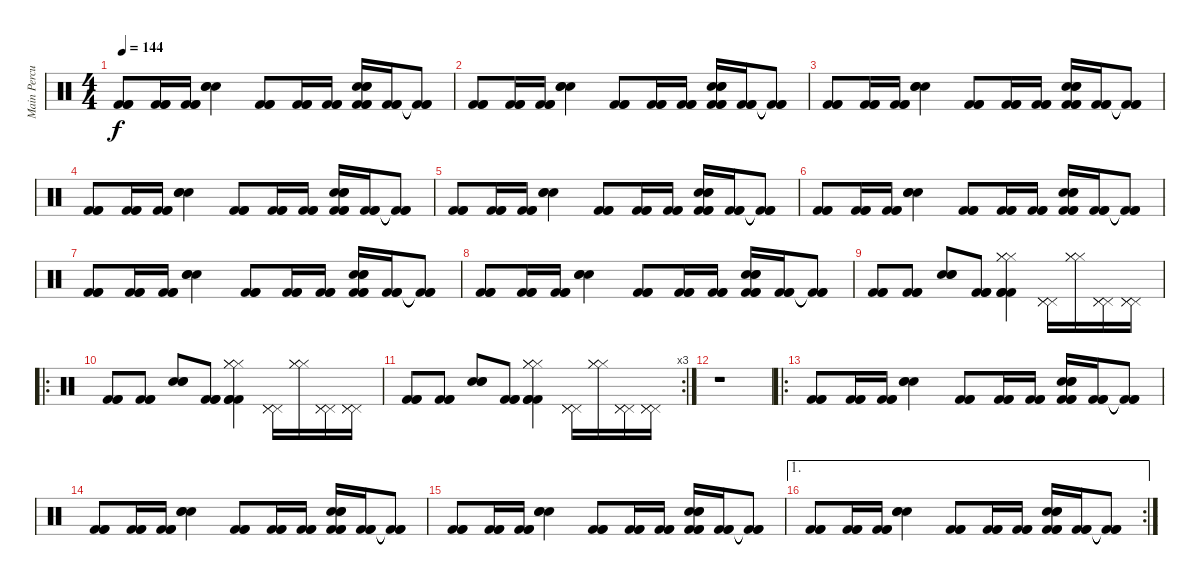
\track ("Main Percussion" "Main Percu") {instrument percussion}
\staff {score}
\articulation defaults
\ts (4 4)
\tempo 144
\clef neutral
\ks c
("Kick (hit) 2" "Kick (hit) 2" "Kick (hit) 2").8{dy f} ("Kick (hit) 2" "Kick (hit) 2" "Kick (hit) 2").16 ("Kick (hit) 2" "Kick (hit) 2" "Kick (hit) 2").16 ("Electric Snare (hit)" "Electric Snare (hit)" "Electric Snare (hit)").4 ("Kick (hit) 2" "Kick (hit) 2" "Kick (hit) 2").8 ("Kick (hit) 2" "Kick (hit) 2" "Kick (hit) 2").16 ("Kick (hit) 2" "Kick (hit) 2" "Kick (hit) 2").16 ("Snare (hit) 2" "Snare (hit) 2" "Snare (hit) 2" "Kick (hit) 2" "Kick (hit) 2" "Kick (hit) 2").16 ("Kick (hit) 2" "Kick (hit) 2" "Kick (hit) 2").16 ("Kick (hit) 2"{t} "Kick (hit) 2"{t} "Kick (hit) 2"{t}).8 |
("Kick (hit) 2" "Kick (hit) 2" "Kick (hit) 2").8 ("Kick (hit) 2" "Kick (hit) 2" "Kick (hit) 2").16 ("Kick (hit) 2" "Kick (hit) 2" "Kick (hit) 2").16 ("Electric Snare (hit)" "Electric Snare (hit)" "Electric Snare (hit)").4 ("Kick (hit) 2" "Kick (hit) 2" "Kick (hit) 2").8 ("Kick (hit) 2" "Kick (hit) 2" "Kick (hit) 2").16 ("Kick (hit) 2" "Kick (hit) 2" "Kick (hit) 2").16 ("Snare (hit) 2" "Snare (hit) 2" "Snare (hit) 2" "Kick (hit) 2" "Kick (hit) 2" "Kick (hit) 2").16 ("Kick (hit) 2" "Kick (hit) 2" "Kick (hit) 2").16 ("Kick (hit) 2"{t} "Kick (hit) 2"{t} "Kick (hit) 2"{t}).8 |
("Kick (hit) 2" "Kick (hit) 2" "Kick (hit) 2").8 ("Kick (hit) 2" "Kick (hit) 2" "Kick (hit) 2").16 ("Kick (hit) 2" "Kick (hit) 2" "Kick (hit) 2").16 ("Electric Snare (hit)" "Electric Snare (hit)" "Electric Snare (hit)").4 ("Kick (hit) 2" "Kick (hit) 2" "Kick (hit) 2").8 ("Kick (hit) 2" "Kick (hit) 2" "Kick (hit) 2").16 ("Kick (hit) 2" "Kick (hit) 2" "Kick (hit) 2").16 ("Snare (hit) 2" "Snare (hit) 2" "Snare (hit) 2" "Kick (hit) 2" "Kick (hit) 2" "Kick (hit) 2").16 ("Kick (hit) 2" "Kick (hit) 2" "Kick (hit) 2").16 ("Kick (hit) 2"{t} "Kick (hit) 2"{t} "Kick (hit) 2"{t}).8 |
("Kick (hit) 2" "Kick (hit) 2" "Kick (hit) 2").8 ("Kick (hit) 2" "Kick (hit) 2" "Kick (hit) 2").16 ("Kick (hit) 2" "Kick (hit) 2" "Kick (hit) 2").16 ("Electric Snare (hit)" "Electric Snare (hit)" "Electric Snare (hit)").4 ("Kick (hit) 2" "Kick (hit) 2" "Kick (hit) 2").8 ("Kick (hit) 2" "Kick (hit) 2" "Kick (hit) 2").16 ("Kick (hit) 2" "Kick (hit) 2" "Kick (hit) 2").16 ("Snare (hit) 2" "Snare (hit) 2" "Snare (hit) 2" "Kick (hit) 2" "Kick (hit) 2" "Kick (hit) 2").16 ("Kick (hit) 2" "Kick (hit) 2" "Kick (hit) 2").16 ("Kick (hit) 2"{t} "Kick (hit) 2"{t} "Kick (hit) 2"{t}).8 |
("Kick (hit) 2" "Kick (hit) 2" "Kick (hit) 2").8 ("Kick (hit) 2" "Kick (hit) 2" "Kick (hit) 2").16 ("Kick (hit) 2" "Kick (hit) 2" "Kick (hit) 2").16 ("Electric Snare (hit)" "Electric Snare (hit)" "Electric Snare (hit)").4 ("Kick (hit) 2" "Kick (hit) 2" "Kick (hit) 2").8 ("Kick (hit) 2" "Kick (hit) 2" "Kick (hit) 2").16 ("Kick (hit) 2" "Kick (hit) 2" "Kick (hit) 2").16 ("Snare (hit) 2" "Snare (hit) 2" "Snare (hit) 2" "Kick (hit) 2" "Kick (hit) 2" "Kick (hit) 2").16 ("Kick (hit) 2" "Kick (hit) 2" "Kick (hit) 2").16 ("Kick (hit) 2"{t} "Kick (hit) 2"{t} "Kick (hit) 2"{t}).8 |
("Kick (hit) 2" "Kick (hit) 2" "Kick (hit) 2").8 ("Kick (hit) 2" "Kick (hit) 2" "Kick (hit) 2").16 ("Kick (hit) 2" "Kick (hit) 2" "Kick (hit) 2").16 ("Electric Snare (hit)" "Electric Snare (hit)" "Electric Snare (hit)").4 ("Kick (hit) 2" "Kick (hit) 2" "Kick (hit) 2").8 ("Kick (hit) 2" "Kick (hit) 2" "Kick (hit) 2").16 ("Kick (hit) 2" "Kick (hit) 2" "Kick (hit) 2").16 ("Snare (hit) 2" "Snare (hit) 2" "Snare (hit) 2" "Kick (hit) 2" "Kick (hit) 2" "Kick (hit) 2").16 ("Kick (hit) 2" "Kick (hit) 2" "Kick (hit) 2").16 ("Kick (hit) 2"{t} "Kick (hit) 2"{t} "Kick (hit) 2"{t}).8 |
("Kick (hit) 2" "Kick (hit) 2" "Kick (hit) 2").8 ("Kick (hit) 2" "Kick (hit) 2" "Kick (hit) 2").16 ("Kick (hit) 2" "Kick (hit) 2" "Kick (hit) 2").16 ("Electric Snare (hit)" "Electric Snare (hit)" "Electric Snare (hit)").4 ("Kick (hit) 2" "Kick (hit) 2" "Kick (hit) 2").8 ("Kick (hit) 2" "Kick (hit) 2" "Kick (hit) 2").16 ("Kick (hit) 2" "Kick (hit) 2" "Kick (hit) 2").16 ("Snare (hit) 2" "Snare (hit) 2" "Snare (hit) 2" "Kick (hit) 2" "Kick (hit) 2" "Kick (hit) 2").16 ("Kick (hit) 2" "Kick (hit) 2" "Kick (hit) 2").16 ("Kick (hit) 2"{t} "Kick (hit) 2"{t} "Kick (hit) 2"{t}).8 |
("Kick (hit) 2" "Kick (hit) 2" "Kick (hit) 2").8 ("Kick (hit) 2" "Kick (hit) 2" "Kick (hit) 2").16 ("Kick (hit) 2" "Kick (hit) 2" "Kick (hit) 2").16 ("Electric Snare (hit)" "Electric Snare (hit)" "Electric Snare (hit)").4 ("Kick (hit) 2" "Kick (hit) 2" "Kick (hit) 2").8 ("Kick (hit) 2" "Kick (hit) 2" "Kick (hit) 2").16 ("Kick (hit) 2" "Kick (hit) 2" "Kick (hit) 2").16 ("Snare (hit) 2" "Snare (hit) 2" "Snare (hit) 2" "Kick (hit) 2" "Kick (hit) 2" "Kick (hit) 2").16 ("Kick (hit) 2" "Kick (hit) 2" "Kick (hit) 2").16 ("Kick (hit) 2"{t} "Kick (hit) 2"{t} "Kick (hit) 2"{t}).8 |
("Kick (hit) 2" "Kick (hit) 2" "Kick (hit) 2").8 ("Kick (hit) 2" "Kick (hit) 2" "Kick (hit) 2").8 ("Snare (hit) 2" "Snare (hit) 2" "Snare (hit) 2").8 ("Kick (hit) 2" "Kick (hit) 2" "Kick (hit) 2").8 ("Hi-Hat (closed)" "Hi-Hat (closed)" "Hi-Hat (closed)" "Kick (hit) 2" "Kick (hit) 2" "Kick (hit) 2").4 ("Pedal Hi-Hat (hit)" "Pedal Hi-Hat (hit)" "Pedal Hi-Hat (hit)").16 ("Hi-Hat (closed)" "Hi-Hat (closed)" "Hi-Hat (closed)").16 ("Pedal Hi-Hat (hit)" "Pedal Hi-Hat (hit)" "Pedal Hi-Hat (hit)").16 ("Pedal Hi-Hat (hit)" "Pedal Hi-Hat (hit)" "Pedal Hi-Hat (hit)").16 |
\ro
("Kick (hit) 2" "Kick (hit) 2" "Kick (hit) 2").8 ("Kick (hit) 2" "Kick (hit) 2" "Kick (hit) 2").8 ("Snare (hit) 2" "Snare (hit) 2" "Snare (hit) 2").8 ("Kick (hit) 2" "Kick (hit) 2" "Kick (hit) 2").8 ("Hi-Hat (closed)" "Hi-Hat (closed)" "Hi-Hat (closed)" "Kick (hit) 2" "Kick (hit) 2" "Kick (hit) 2").4 ("Pedal Hi-Hat (hit)" "Pedal Hi-Hat (hit)" "Pedal Hi-Hat (hit)").16 ("Hi-Hat (closed)" "Hi-Hat (closed)" "Hi-Hat (closed)").16 ("Pedal Hi-Hat (hit)" "Pedal Hi-Hat (hit)" "Pedal Hi-Hat (hit)").16 ("Pedal Hi-Hat (hit)" "Pedal Hi-Hat (hit)" "Pedal Hi-Hat (hit)").16 |
\rc 3
("Kick (hit) 2" "Kick (hit) 2" "Kick (hit) 2").8 ("Kick (hit) 2" "Kick (hit) 2" "Kick (hit) 2").8 ("Snare (hit) 2" "Snare (hit) 2" "Snare (hit) 2").8 ("Kick (hit) 2" "Kick (hit) 2" "Kick (hit) 2").8 ("Hi-Hat (closed)" "Hi-Hat (closed)" "Hi-Hat (closed)" "Kick (hit) 2" "Kick (hit) 2" "Kick (hit) 2").4 ("Pedal Hi-Hat (hit)" "Pedal Hi-Hat (hit)" "Pedal Hi-Hat (hit)").16 ("Hi-Hat (closed)" "Hi-Hat (closed)" "Hi-Hat (closed)").16 ("Pedal Hi-Hat (hit)" "Pedal Hi-Hat (hit)" "Pedal Hi-Hat (hit)").16 ("Pedal Hi-Hat (hit)" "Pedal Hi-Hat (hit)" "Pedal Hi-Hat (hit)").16 |
r.1 |
\ro
("Kick (hit) 2" "Kick (hit) 2" "Kick (hit) 2").8 ("Kick (hit) 2" "Kick (hit) 2" "Kick (hit) 2").16 ("Kick (hit) 2" "Kick (hit) 2" "Kick (hit) 2").16 ("Electric Snare (hit)" "Electric Snare (hit)" "Electric Snare (hit)").4 ("Kick (hit) 2" "Kick (hit) 2" "Kick (hit) 2").8 ("Kick (hit) 2" "Kick (hit) 2" "Kick (hit) 2").16 ("Kick (hit) 2" "Kick (hit) 2" "Kick (hit) 2").16 ("Snare (hit) 2" "Snare (hit) 2" "Snare (hit) 2" "Kick (hit) 2" "Kick (hit) 2" "Kick (hit) 2").16 ("Kick (hit) 2" "Kick (hit) 2" "Kick (hit) 2").16 ("Kick (hit) 2"{t} "Kick (hit) 2"{t} "Kick (hit) 2"{t}).8 |
("Kick (hit) 2" "Kick (hit) 2" "Kick (hit) 2").8 ("Kick (hit) 2" "Kick (hit) 2" "Kick (hit) 2").16 ("Kick (hit) 2" "Kick (hit) 2" "Kick (hit) 2").16 ("Electric Snare (hit)" "Electric Snare (hit)" "Electric Snare (hit)").4 ("Kick (hit) 2" "Kick (hit) 2" "Kick (hit) 2").8 ("Kick (hit) 2" "Kick (hit) 2" "Kick (hit) 2").16 ("Kick (hit) 2" "Kick (hit) 2" "Kick (hit) 2").16 ("Snare (hit) 2" "Snare (hit) 2" "Snare (hit) 2" "Kick (hit) 2" "Kick (hit) 2" "Kick (hit) 2").16 ("Kick (hit) 2" "Kick (hit) 2" "Kick (hit) 2").16 ("Kick (hit) 2"{t} "Kick (hit) 2"{t} "Kick (hit) 2"{t}).8 |
("Kick (hit) 2" "Kick (hit) 2" "Kick (hit) 2").8 ("Kick (hit) 2" "Kick (hit) 2" "Kick (hit) 2").16 ("Kick (hit) 2" "Kick (hit) 2" "Kick (hit) 2").16 ("Electric Snare (hit)" "Electric Snare (hit)" "Electric Snare (hit)").4 ("Kick (hit) 2" "Kick (hit) 2" "Kick (hit) 2").8 ("Kick (hit) 2" "Kick (hit) 2" "Kick (hit) 2").16 ("Kick (hit) 2" "Kick (hit) 2" "Kick (hit) 2").16 ("Snare (hit) 2" "Snare (hit) 2" "Snare (hit) 2" "Kick (hit) 2" "Kick (hit) 2" "Kick (hit) 2").16 ("Kick (hit) 2" "Kick (hit) 2" "Kick (hit) 2").16 ("Kick (hit) 2"{t} "Kick (hit) 2"{t} "Kick (hit) 2"{t}).8 |
\ae 1
\rc 2
("Kick (hit) 2" "Kick (hit) 2" "Kick (hit) 2").8 ("Kick (hit) 2" "Kick (hit) 2" "Kick (hit) 2").16 ("Kick (hit) 2" "Kick (hit) 2" "Kick (hit) 2").16 ("Electric Snare (hit)" "Electric Snare (hit)" "Electric Snare (hit)").4 ("Kick (hit) 2" "Kick (hit) 2" "Kick (hit) 2").8 ("Kick (hit) 2" "Kick (hit) 2" "Kick (hit) 2").16 ("Kick (hit) 2" "Kick (hit) 2" "Kick (hit) 2").16 ("Snare (hit) 2" "Snare (hit) 2" "Snare (hit) 2" "Kick (hit) 2" "Kick (hit) 2" "Kick (hit) 2").16 ("Kick (hit) 2" "Kick (hit) 2" "Kick (hit) 2").16 ("Kick (hit) 2"{t} "Kick (hit) 2"{t} "Kick (hit) 2"{t}).8
